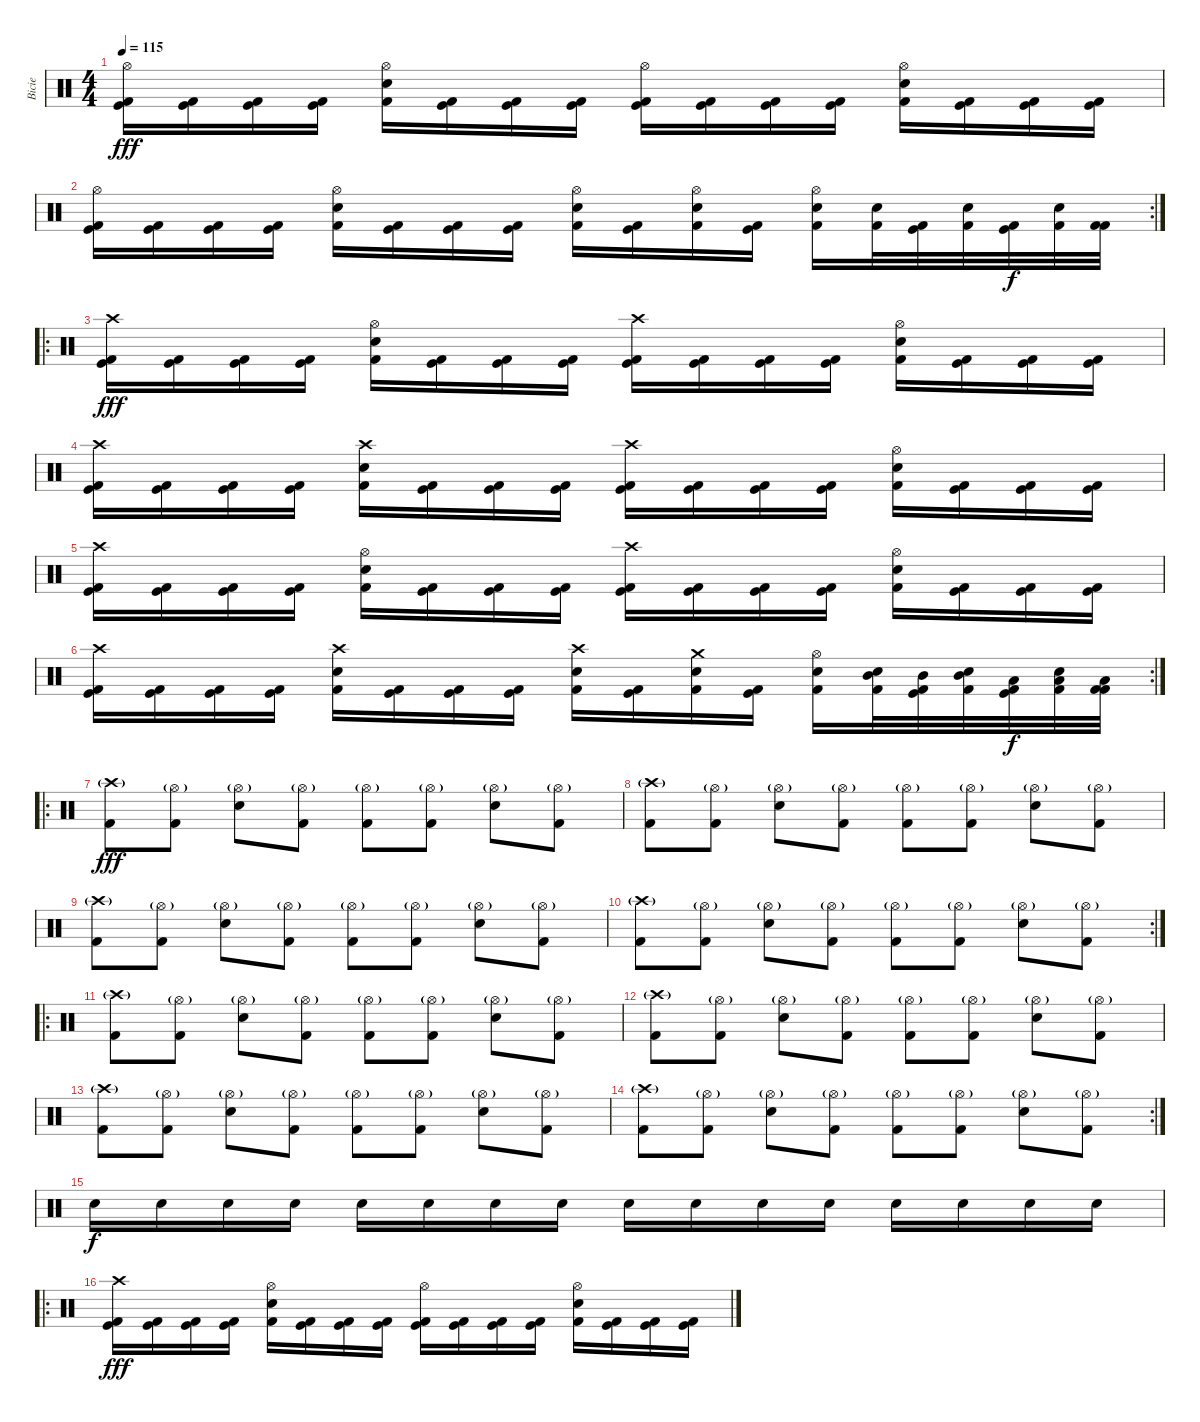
\track ("Bicie" "Bicie") {instrument percussion}
\staff {score}
\articulation defaults
\ts (4 4)
\tempo 115
\clef neutral
\ks c
("Hi-Hat (open)" "Kick (hit)" "Kick (hit) 2").16{dy fff} ("Kick (hit)" "Kick (hit) 2").16 ("Kick (hit)" "Kick (hit) 2").16 ("Kick (hit)" "Kick (hit) 2").16 ("Hi-Hat (open)" "Electric Snare (hit)" "Kick (hit) 2").16 ("Kick (hit)" "Kick (hit) 2").16 ("Kick (hit)" "Kick (hit) 2").16 ("Kick (hit)" "Kick (hit) 2").16 ("Hi-Hat (open)" "Kick (hit)" "Kick (hit) 2").16 ("Kick (hit)" "Kick (hit) 2").16 ("Kick (hit)" "Kick (hit) 2").16 ("Kick (hit)" "Kick (hit) 2").16 ("Hi-Hat (open)" "Electric Snare (hit)" "Kick (hit) 2").16 ("Kick (hit)" "Kick (hit) 2").16 ("Kick (hit)" "Kick (hit) 2").16 ("Kick (hit)" "Kick (hit) 2").16 |
\rc 2
("Hi-Hat (open)" "Kick (hit)" "Kick (hit) 2").16 ("Kick (hit)" "Kick (hit) 2").16 ("Kick (hit)" "Kick (hit) 2").16 ("Kick (hit)" "Kick (hit) 2").16 ("Hi-Hat (open)" "Electric Snare (hit)" "Kick (hit) 2").16 ("Kick (hit)" "Kick (hit) 2").16 ("Kick (hit)" "Kick (hit) 2").16 ("Kick (hit)" "Kick (hit) 2").16 ("Hi-Hat (open)" "Electric Snare (hit)" "Kick (hit) 2").16 ("Kick (hit)" "Kick (hit) 2").16 ("Hi-Hat (open)" "Electric Snare (hit)" "Kick (hit) 2").16 ("Kick (hit)" "Kick (hit) 2").16 ("Hi-Hat (open)" "Electric Snare (hit)" "Kick (hit) 2").16 ("Electric Snare (hit)" "Kick (hit) 2").32 ("Kick (hit)" "Kick (hit) 2").32 ("Electric Snare (hit)" "Kick (hit) 2").32 ("Kick (hit)" "Kick (hit) 2").32{dy f} ("Electric Snare (hit)" "Kick (hit) 2").32 ("Kick (hit) 2" "Kick (hit) 2").32 |
\ro
("Crash high (hit)" "Kick (hit)" "Kick (hit) 2").16{dy fff} ("Kick (hit)" "Kick (hit) 2").16 ("Kick (hit)" "Kick (hit) 2").16 ("Kick (hit)" "Kick (hit) 2").16 ("Hi-Hat (open)" "Electric Snare (hit)" "Kick (hit) 2").16 ("Kick (hit)" "Kick (hit) 2").16 ("Kick (hit)" "Kick (hit) 2").16 ("Kick (hit)" "Kick (hit) 2").16 ("Crash high (hit)" "Kick (hit)" "Kick (hit) 2").16 ("Kick (hit)" "Kick (hit) 2").16 ("Kick (hit)" "Kick (hit) 2").16 ("Kick (hit)" "Kick (hit) 2").16 ("Hi-Hat (open)" "Electric Snare (hit)" "Kick (hit) 2").16 ("Kick (hit)" "Kick (hit) 2").16 ("Kick (hit)" "Kick (hit) 2").16 ("Kick (hit)" "Kick (hit) 2").16 |
("Crash high (hit)" "Kick (hit)" "Kick (hit) 2").16 ("Kick (hit)" "Kick (hit) 2").16 ("Kick (hit)" "Kick (hit) 2").16 ("Kick (hit)" "Kick (hit) 2").16 ("Crash high (hit)" "Electric Snare (hit)" "Kick (hit) 2").16 ("Kick (hit)" "Kick (hit) 2").16 ("Kick (hit)" "Kick (hit) 2").16 ("Kick (hit)" "Kick (hit) 2").16 ("Crash high (hit)" "Kick (hit)" "Kick (hit) 2").16 ("Kick (hit)" "Kick (hit) 2").16 ("Kick (hit)" "Kick (hit) 2").16 ("Kick (hit)" "Kick (hit) 2").16 ("Hi-Hat (open)" "Electric Snare (hit)" "Kick (hit) 2").16 ("Kick (hit)" "Kick (hit) 2").16 ("Kick (hit)" "Kick (hit) 2").16 ("Kick (hit)" "Kick (hit) 2").16 |
("Crash high (hit)" "Kick (hit)" "Kick (hit) 2").16 ("Kick (hit)" "Kick (hit) 2").16 ("Kick (hit)" "Kick (hit) 2").16 ("Kick (hit)" "Kick (hit) 2").16 ("Hi-Hat (open)" "Electric Snare (hit)" "Kick (hit) 2").16 ("Kick (hit)" "Kick (hit) 2").16 ("Kick (hit)" "Kick (hit) 2").16 ("Kick (hit)" "Kick (hit) 2").16 ("Crash high (hit)" "Kick (hit)" "Kick (hit) 2").16 ("Kick (hit)" "Kick (hit) 2").16 ("Kick (hit)" "Kick (hit) 2").16 ("Kick (hit)" "Kick (hit) 2").16 ("Hi-Hat (open)" "Electric Snare (hit)" "Kick (hit) 2").16 ("Kick (hit)" "Kick (hit) 2").16 ("Kick (hit)" "Kick (hit) 2").16 ("Kick (hit)" "Kick (hit) 2").16 |
\rc 2
("Crash high (hit)" "Kick (hit)" "Kick (hit) 2").16 ("Kick (hit)" "Kick (hit) 2").16 ("Kick (hit)" "Kick (hit) 2").16 ("Kick (hit)" "Kick (hit) 2").16 ("Crash high (hit)" "Electric Snare (hit)" "Kick (hit) 2").16 ("Kick (hit)" "Kick (hit) 2").16 ("Kick (hit)" "Kick (hit) 2").16 ("Kick (hit)" "Kick (hit) 2").16 ("Crash high (hit)" "Electric Snare (hit)" "Kick (hit) 2").16 ("Kick (hit)" "Kick (hit) 2").16 ("Crash medium (hit)" "Electric Snare (hit)" "Kick (hit) 2").16 ("Kick (hit)" "Kick (hit) 2").16 ("Hi-Hat (open)" "Electric Snare (hit)" "Kick (hit) 2").16 ("Mid Tom (hit)" "Electric Snare (hit)" "Kick (hit) 2").32 ("Mid Tom (hit)" "Kick (hit)" "Kick (hit) 2").32 ("Mid Tom (hit)" "Electric Snare (hit)" "Kick (hit) 2").32 ("Low Tom (hit)" "Kick (hit)" "Kick (hit) 2").32{dy f} ("Low Tom (hit)" "Electric Snare (hit)" "Kick (hit) 2").32 ("Low Tom (hit)" "Kick (hit) 2" "Kick (hit) 2").32 |
\ro
("Crash high (hit)"{g} "Kick (hit) 2").8{dy fff} ("Hi-Hat (open)"{g} "Kick (hit) 2").8 ("Hi-Hat (open)"{g} "Snare (hit) 2").8 ("Hi-Hat (open)"{g} "Kick (hit) 2").8 ("Hi-Hat (open)"{g} "Kick (hit) 2").8 ("Hi-Hat (open)"{g} "Kick (hit) 2").8 ("Hi-Hat (open)"{g} "Snare (hit) 2").8 ("Hi-Hat (open)"{g} "Kick (hit) 2").8 |
("Crash high (hit)"{g} "Kick (hit) 2").8 ("Hi-Hat (open)"{g} "Kick (hit) 2").8 ("Hi-Hat (open)"{g} "Snare (hit) 2").8 ("Hi-Hat (open)"{g} "Kick (hit) 2").8 ("Hi-Hat (open)"{g} "Kick (hit) 2").8 ("Hi-Hat (open)"{g} "Kick (hit) 2").8 ("Hi-Hat (open)"{g} "Snare (hit) 2").8 ("Hi-Hat (open)"{g} "Kick (hit) 2").8 |
("Crash high (hit)"{g} "Kick (hit) 2").8 ("Hi-Hat (open)"{g} "Kick (hit) 2").8 ("Hi-Hat (open)"{g} "Snare (hit) 2").8 ("Hi-Hat (open)"{g} "Kick (hit) 2").8 ("Hi-Hat (open)"{g} "Kick (hit) 2").8 ("Hi-Hat (open)"{g} "Kick (hit) 2").8 ("Hi-Hat (open)"{g} "Snare (hit) 2").8 ("Hi-Hat (open)"{g} "Kick (hit) 2").8 |
\rc 2
("Crash high (hit)"{g} "Kick (hit) 2").8 ("Hi-Hat (open)"{g} "Kick (hit) 2").8 ("Hi-Hat (open)"{g} "Snare (hit) 2").8 ("Hi-Hat (open)"{g} "Kick (hit) 2").8 ("Hi-Hat (open)"{g} "Kick (hit) 2").8 ("Hi-Hat (open)"{g} "Kick (hit) 2").8 ("Hi-Hat (open)"{g} "Snare (hit) 2").8 ("Hi-Hat (open)"{g} "Kick (hit) 2").8 |
\ro
("Crash high (hit)"{g} "Kick (hit) 2").8 ("Hi-Hat (open)"{g} "Kick (hit) 2").8 ("Hi-Hat (open)"{g} "Snare (hit) 2").8 ("Hi-Hat (open)"{g} "Kick (hit) 2").8 ("Hi-Hat (open)"{g} "Kick (hit) 2").8 ("Hi-Hat (open)"{g} "Kick (hit) 2").8 ("Hi-Hat (open)"{g} "Snare (hit) 2").8 ("Hi-Hat (open)"{g} "Kick (hit) 2").8 |
("Crash high (hit)"{g} "Kick (hit) 2").8 ("Hi-Hat (open)"{g} "Kick (hit) 2").8 ("Hi-Hat (open)"{g} "Snare (hit) 2").8 ("Hi-Hat (open)"{g} "Kick (hit) 2").8 ("Hi-Hat (open)"{g} "Kick (hit) 2").8 ("Hi-Hat (open)"{g} "Kick (hit) 2").8 ("Hi-Hat (open)"{g} "Snare (hit) 2").8 ("Hi-Hat (open)"{g} "Kick (hit) 2").8 |
("Crash high (hit)"{g} "Kick (hit) 2").8 ("Hi-Hat (open)"{g} "Kick (hit) 2").8 ("Hi-Hat (open)"{g} "Snare (hit) 2").8 ("Hi-Hat (open)"{g} "Kick (hit) 2").8 ("Hi-Hat (open)"{g} "Kick (hit) 2").8 ("Hi-Hat (open)"{g} "Kick (hit) 2").8 ("Hi-Hat (open)"{g} "Snare (hit) 2").8 ("Hi-Hat (open)"{g} "Kick (hit) 2").8 |
\rc 2
("Crash high (hit)"{g} "Kick (hit) 2").8 ("Hi-Hat (open)"{g} "Kick (hit) 2").8 ("Hi-Hat (open)"{g} "Snare (hit) 2").8 ("Hi-Hat (open)"{g} "Kick (hit) 2").8 ("Hi-Hat (open)"{g} "Kick (hit) 2").8 ("Hi-Hat (open)"{g} "Kick (hit) 2").8 ("Hi-Hat (open)"{g} "Snare (hit) 2").8 ("Hi-Hat (open)"{g} "Kick (hit) 2").8 |
"Electric Snare (hit)".16{dy f} "Electric Snare (hit)".16 "Electric Snare (hit)".16 "Electric Snare (hit)".16 "Electric Snare (hit)".16 "Electric Snare (hit)".16 "Electric Snare (hit)".16 "Electric Snare (hit)".16 "Electric Snare (hit)".16 "Electric Snare (hit)".16 "Electric Snare (hit)".16 "Electric Snare (hit)".16 "Electric Snare (hit)".16 "Electric Snare (hit)".16 "Electric Snare (hit)".16 "Electric Snare (hit)".16 |
\ro
("Crash high (hit)" "Kick (hit)" "Kick (hit) 2").16{dy fff} ("Kick (hit)" "Kick (hit) 2").16 ("Kick (hit)" "Kick (hit) 2").16 ("Kick (hit)" "Kick (hit) 2").16 ("Hi-Hat (open)" "Electric Snare (hit)" "Kick (hit) 2").16 ("Kick (hit)" "Kick (hit) 2").16 ("Kick (hit)" "Kick (hit) 2").16 ("Kick (hit)" "Kick (hit) 2").16 ("Hi-Hat (open)" "Kick (hit)" "Kick (hit) 2").16 ("Kick (hit)" "Kick (hit) 2").16 ("Kick (hit)" "Kick (hit) 2").16 ("Kick (hit)" "Kick (hit) 2").16 ("Hi-Hat (open)" "Electric Snare (hit)" "Kick (hit) 2").16 ("Kick (hit)" "Kick (hit) 2").16 ("Kick (hit)" "Kick (hit) 2").16 ("Kick (hit)" "Kick (hit) 2").16
